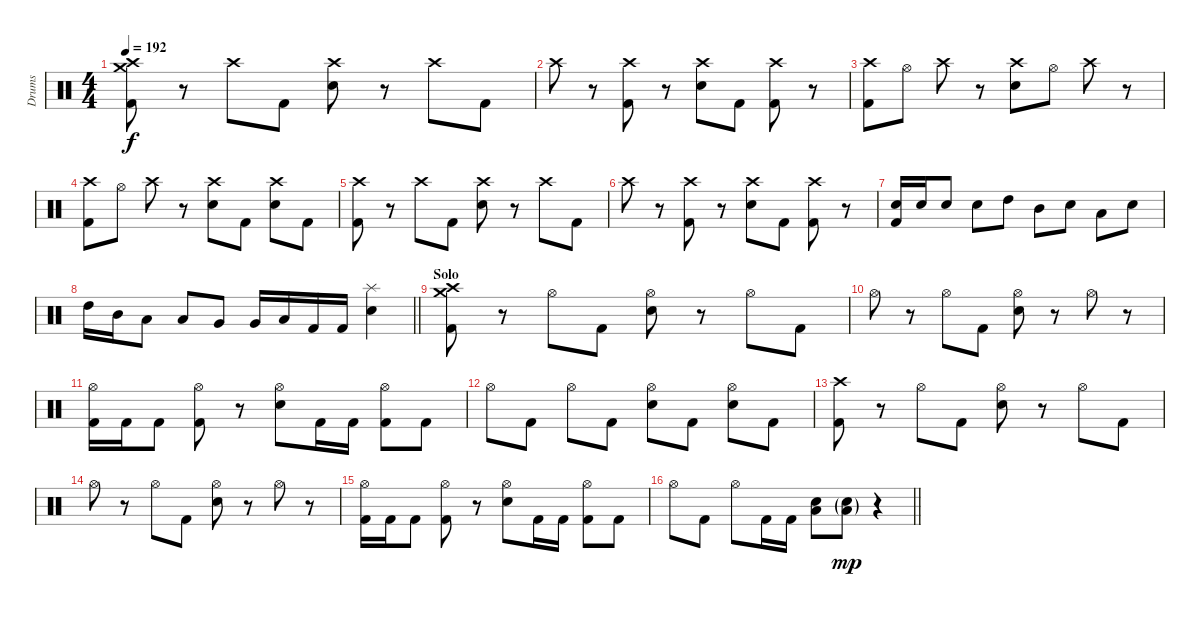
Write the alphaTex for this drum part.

\track ("Drums" "Drums") {instrument percussion}
\staff {score}
\articulation defaults
\ts (4 4)
\tempo 192
\clef neutral
\ks c
("Crash high (hit)" "Crash medium (hit)" "Kick (hit) 2").8{dy f} r.8 "Crash high (hit)".8 "Kick (hit) 2".8 ("Crash high (hit)" "Electric Snare (hit)").8 r.8 "Crash high (hit)".8 "Kick (hit) 2".8 |
"Crash high (hit)".8 r.8 ("Crash high (hit)" "Kick (hit) 2").8 r.8 ("Crash high (hit)" "Electric Snare (hit)").8 "Kick (hit) 2".8 ("Crash high (hit)" "Kick (hit) 2").8 r.8 |
("Crash high (hit)" "Kick (hit) 2").8 "Hi-Hat (open)".8 "Crash high (hit)".8 r.8 ("Crash high (hit)" "Electric Snare (hit)").8 "Hi-Hat (open)".8 "Crash high (hit)".8 r.8 |
("Crash high (hit)" "Kick (hit) 2").8 "Hi-Hat (open)".8 "Crash high (hit)".8 r.8 ("Crash high (hit)" "Electric Snare (hit)").8 "Kick (hit) 2".8 ("Crash high (hit)" "Electric Snare (hit)").8 "Kick (hit) 2".8 |
("Crash high (hit)" "Kick (hit) 2").8 r.8 "Crash high (hit)".8 "Kick (hit) 2".8 ("Crash high (hit)" "Electric Snare (hit)").8 r.8 "Crash high (hit)".8 "Kick (hit) 2".8 |
"Crash high (hit)".8 r.8 ("Crash high (hit)" "Kick (hit) 2").8 r.8 ("Crash high (hit)" "Electric Snare (hit)").8 "Kick (hit) 2".8 ("Crash high (hit)" "Kick (hit) 2").8 r.8 |
("Electric Snare (hit)" "Kick (hit) 2").16 "Electric Snare (hit)".16 "Electric Snare (hit)".8 "Electric Snare (hit)".8 "High Tom (hit)".8 "Mid Tom (hit)".8 "Electric Snare (hit)".8 "Low Tom (hit)".8 "Electric Snare (hit)".8 |
\barLineRight lightlight "High Tom (hit)".16 "Mid Tom (hit)".16 "Low Tom (hit)".8 "Low Tom (hit)".8 "Very Low Tom (hit)".8 "Very Low Tom (hit)".16 "Low Floor Tom (hit)".16 "Kick (hit) 2".16 "Kick (hit) 2".16
("Splash (hit)" "Electric Snare (hit)").4 |
\section ("" "Solo")
("Crash high (hit)" "Crash medium (hit)" "Kick (hit) 2").8 r.8 "Hi-Hat (open)".8 "Kick (hit) 2".8 ("Hi-Hat (open)" "Electric Snare (hit)").8 r.8 "Hi-Hat (open)".8 "Kick (hit) 2".8 |
"Hi-Hat (open)".8 r.8 "Hi-Hat (open)".8 "Kick (hit) 2".8 ("Hi-Hat (open)" "Electric Snare (hit)").8 r.8 "Hi-Hat (open)".8 r.8 |
("Hi-Hat (open)" "Kick (hit) 2").16 "Kick (hit) 2".16 "Kick (hit) 2".8 ("Hi-Hat (open)" "Kick (hit) 2").8 r.8 ("Hi-Hat (open)" "Electric Snare (hit)").8 "Kick (hit) 2".16 "Kick (hit) 2".16 ("Hi-Hat (open)" "Kick (hit) 2").8 "Kick (hit) 2".8 |
"Hi-Hat (open)".8 "Kick (hit) 2".8 "Hi-Hat (open)".8 "Kick (hit) 2".8 ("Hi-Hat (open)" "Electric Snare (hit)").8 "Kick (hit) 2".8 ("Hi-Hat (open)" "Electric Snare (hit)").8 "Kick (hit) 2".8 |
("Crash high (hit)" "Kick (hit) 2").8 r.8 "Hi-Hat (open)".8 "Kick (hit) 2".8 ("Hi-Hat (open)" "Electric Snare (hit)").8 r.8 "Hi-Hat (open)".8 "Kick (hit) 2".8 |
"Hi-Hat (open)".8 r.8 "Hi-Hat (open)".8 "Kick (hit) 2".8 ("Hi-Hat (open)" "Electric Snare (hit)").8 r.8 "Hi-Hat (open)".8 r.8 |
("Hi-Hat (open)" "Kick (hit) 2").16 "Kick (hit) 2".16 "Kick (hit) 2".8 ("Hi-Hat (open)" "Kick (hit) 2").8 r.8 ("Hi-Hat (open)" "Electric Snare (hit)").8 "Kick (hit) 2".16 "Kick (hit) 2".16 ("Hi-Hat (open)" "Kick (hit) 2").8 "Kick (hit) 2".8 |
\barLineRight lightlight "Hi-Hat (open)".8 "Kick (hit) 2".8 "Hi-Hat (open)".8 "Kick (hit) 2".16 "Kick (hit) 2".16
("Low Floor Tom (hit)" "Electric Snare (hit)").8 ("Low Floor Tom (hit)"{g} "Electric Snare (hit)"{g}).8{dy mp} r.4
